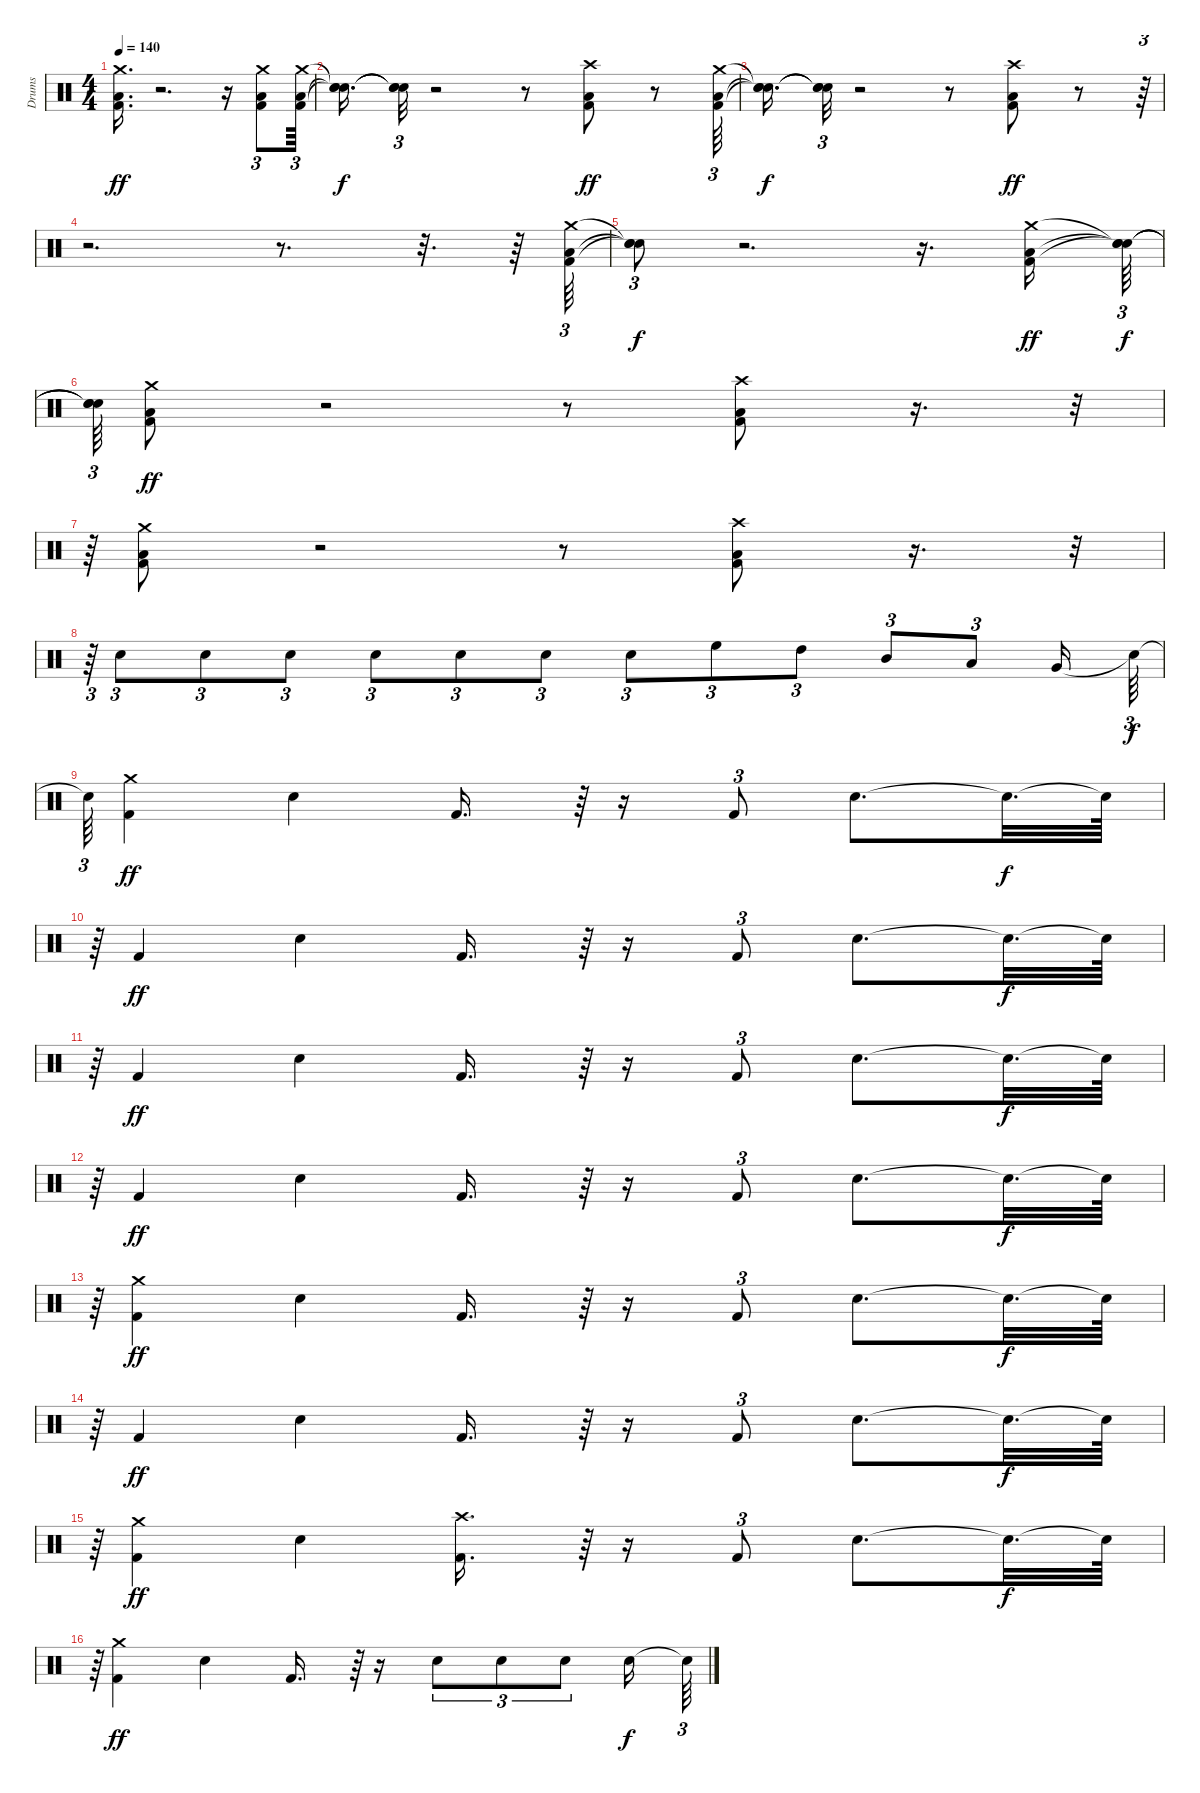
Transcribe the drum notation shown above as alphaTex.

\track ("Drums" "Drums") {instrument percussion}
\staff {score}
\articulation defaults
\ts (4 4)
\tempo 140
\clef neutral
\ks c
("Kick (hit) 2" "Low Floor Tom (hit)" "Crash medium (hit)").16{d dy ff} r.2{d} r.16 ("Kick (hit) 2" "Low Floor Tom (hit)" "Crash medium (hit)").8{tu (3 2)} ("Kick (hit) 2" "Low Floor Tom (hit)" "Crash medium (hit)").64{tu (3 2)} |
("Snare (hit)"{t} "Snare (hit)"{t} "Snare (hit)"{t}).16{d dy f} ("Snare (hit)"{t} "Snare (hit)"{t} "Snare (hit)"{t}).32{tu (3 2)} r.2 r.8 ("Kick (hit) 2" "Low Floor Tom (hit)" "Crash high (hit)").8{dy ff} r.8 ("Kick (hit) 2" "Low Floor Tom (hit)" "Crash medium (hit)").64{tu (3 2)} |
("Snare (hit)"{t} "Snare (hit)"{t} "Snare (hit)"{t}).16{d dy f} ("Snare (hit)"{t} "Snare (hit)"{t} "Snare (hit)"{t}).32{tu (3 2)} r.2 r.8 ("Kick (hit) 2" "Low Floor Tom (hit)" "Crash high (hit)").8{dy ff} r.8 r.64{tu (3 2)} |
r.2{d} r.8{d} r.32{d} r.64 ("Kick (hit) 2" "Low Floor Tom (hit)" "Crash medium (hit)").64{tu (3 2)} |
("Snare (hit)"{t} "Snare (hit)"{t} "Snare (hit)"{t}).8{tu (3 2) dy f} r.2{d} r.16{d} ("Kick (hit) 2" "Low Floor Tom (hit)" "Crash medium (hit)").16{dy ff} ("Snare (hit)"{t} "Snare (hit)"{t} "Snare (hit)"{t}).64{tu (3 2) dy f} |
("Snare (hit)"{t} "Snare (hit)"{t} "Snare (hit)"{t}).64{tu (3 2)} ("Kick (hit) 2" "Low Floor Tom (hit)" "Crash medium (hit)").8{dy ff} r.2 r.8 ("Kick (hit) 2" "Low Floor Tom (hit)" "Crash high (hit)").8 r.16{d} r.32{tu (3 2)} |
r.64{tu (3 2)} ("Kick (hit) 2" "Low Floor Tom (hit)" "Crash medium (hit)").8 r.2 r.8 ("Kick (hit) 2" "Low Floor Tom (hit)" "Crash high (hit)").8 r.16{d} r.32{tu (3 2)} |
r.64{tu (3 2)} "Snare (hit) 2".8{tu (3 2)} "Snare (hit) 2".8{tu (3 2)} "Snare (hit) 2".8{tu (3 2)} "Snare (hit) 2".8{tu (3 2)} "Snare (hit) 2".8{tu (3 2)} "Snare (hit) 2".8{tu (3 2)} "Snare (hit) 2".8{tu (3 2)} "High Floor Tom (hit)".8{tu (3 2)} "High Tom (hit)".8{tu (3 2)} "Mid Tom (hit)".8{tu (3 2)} "Low Tom (hit)".8{tu (3 2)} "Very Low Tom (hit)".16 "Snare (hit)"{t}.64{tu (3 2) dy f} |
"Snare (hit)"{t}.64{tu (3 2)} ("Kick (hit) 2" "Crash medium (hit)").4{dy ff} "Snare (hit) 2".4 "Kick (hit) 2".16{d} r.64{tu (3 2)} r.16 "Kick (hit) 2".8{tu (3 2)} "Snare (hit) 2".8{d} "Snare (hit)"{t}.32{d dy f} "Snare (hit)"{t}.64 |
r.64{tu (3 2)} "Kick (hit) 2".4{dy ff} "Snare (hit) 2".4 "Kick (hit) 2".16{d} r.64{tu (3 2)} r.16 "Kick (hit) 2".8{tu (3 2)} "Snare (hit) 2".8{d} "Snare (hit)"{t}.32{d dy f} "Snare (hit)"{t}.64 |
r.64{tu (3 2)} "Kick (hit) 2".4{dy ff} "Snare (hit) 2".4 "Kick (hit) 2".16{d} r.64{tu (3 2)} r.16 "Kick (hit) 2".8{tu (3 2)} "Snare (hit) 2".8{d} "Snare (hit)"{t}.32{d dy f} "Snare (hit)"{t}.64 |
r.64{tu (3 2)} "Kick (hit) 2".4{dy ff} "Snare (hit) 2".4 "Kick (hit) 2".16{d} r.64{tu (3 2)} r.16 "Kick (hit) 2".8{tu (3 2)} "Snare (hit) 2".8{d} "Snare (hit)"{t}.32{d dy f} "Snare (hit)"{t}.64 |
r.64{tu (3 2)} ("Kick (hit) 2" "Crash medium (hit)").4{dy ff} "Snare (hit) 2".4 "Kick (hit) 2".16{d} r.64{tu (3 2)} r.16 "Kick (hit) 2".8{tu (3 2)} "Snare (hit) 2".8{d} "Snare (hit)"{t}.32{d dy f} "Snare (hit)"{t}.64 |
r.64{tu (3 2)} "Kick (hit) 2".4{dy ff} "Snare (hit) 2".4 "Kick (hit) 2".16{d} r.64{tu (3 2)} r.16 "Kick (hit) 2".8{tu (3 2)} "Snare (hit) 2".8{d} "Snare (hit)"{t}.32{d dy f} "Snare (hit)"{t}.64 |
r.64{tu (3 2)} ("Kick (hit) 2" "Crash medium (hit)").4{dy ff} "Snare (hit) 2".4 ("Kick (hit) 2" "Crash high (hit)").16{d} r.64{tu (3 2)} r.16 "Kick (hit) 2".8{tu (3 2)} "Snare (hit) 2".8{d} "Snare (hit)"{t}.32{d dy f} "Snare (hit)"{t}.64 |
r.64{tu (3 2)} ("Kick (hit) 2" "Crash medium (hit)").4{dy ff} "Snare (hit) 2".4 "Kick (hit) 2".16{d} r.64{tu (3 2)} r.16 "Snare (hit) 2".8{tu (3 2)} "Snare (hit) 2".8{tu (3 2)} "Snare (hit) 2".8{tu (3 2)} "Snare (hit) 2".16{dy f} "Snare (hit)"{t}.64{tu (3 2)}
